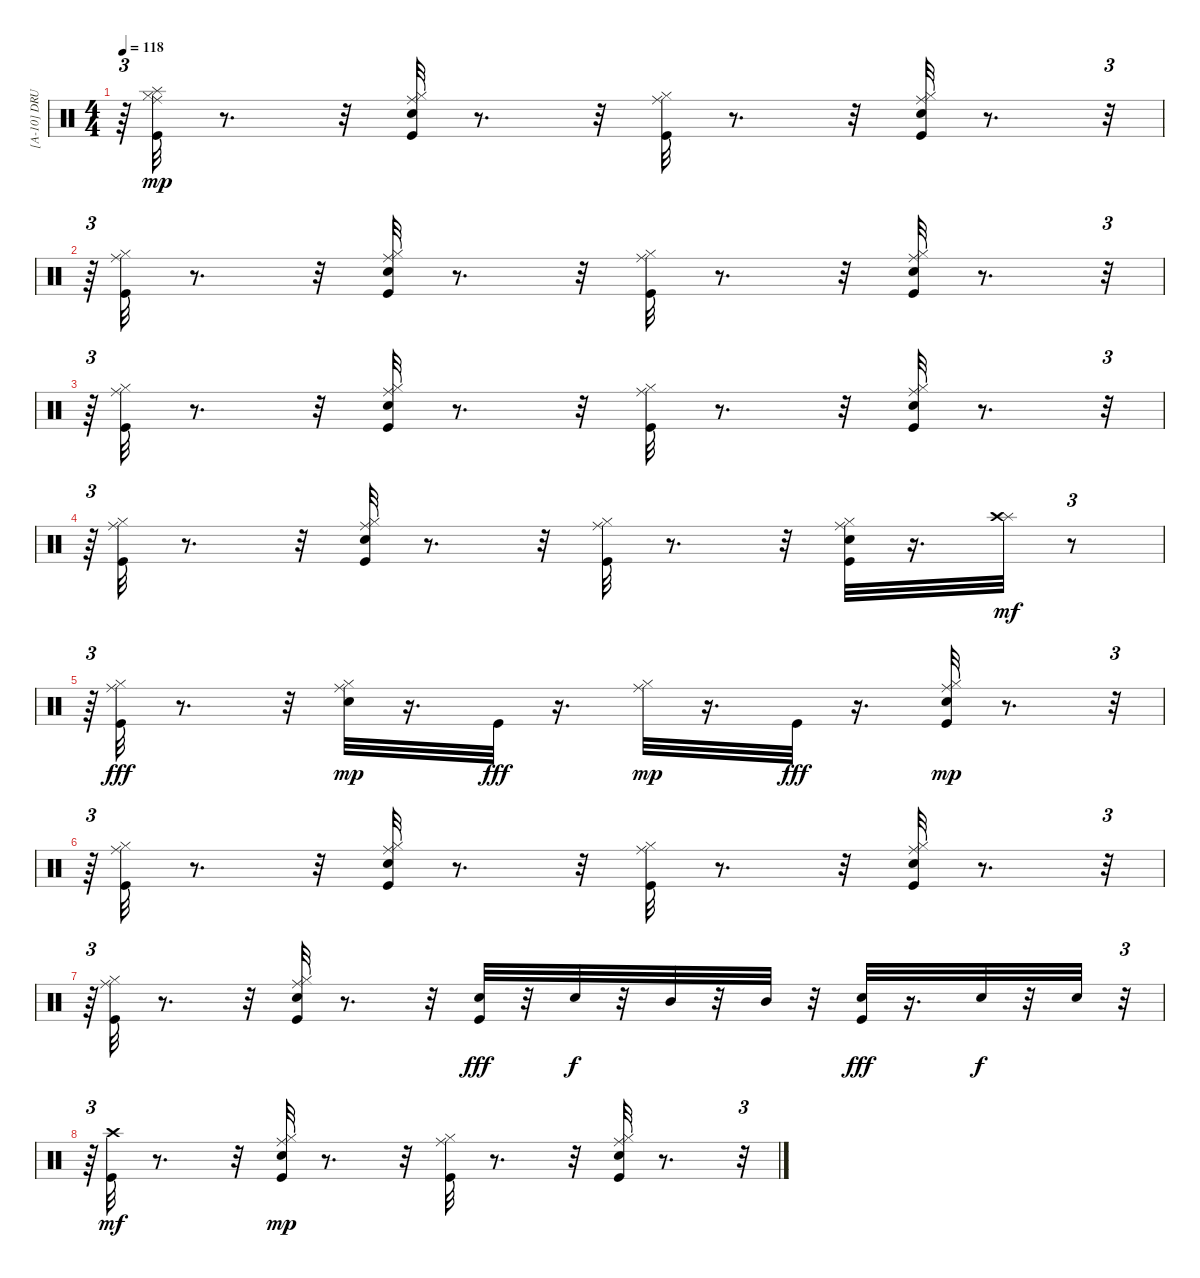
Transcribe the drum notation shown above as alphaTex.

\track ("[A-10] DRUM" "[A-10] DRU") {instrument percussion}
\staff {score}
\articulation defaults
\ts (4 4)
\tempo 118
\clef neutral
\ks c
r.64{tu (3 2) dy mp} ("Kick (hit)" "Splash (hit)" "Ride (middle)" "Hi-Hat (closed)").32 r.8{d} r.32 ("Kick (hit)" "Ride (middle)" "Snare (hit) 2" "Hi-Hat (closed)").32 r.8{d} r.32 ("Kick (hit)" "Ride (middle)" "Hi-Hat (closed)").32 r.8{d} r.32 ("Kick (hit)" "Ride (middle)" "Snare (hit) 2" "Hi-Hat (closed)").32 r.8{d} r.32{tu (3 2)} |
r.64{tu (3 2)} ("Kick (hit)" "Ride (middle)" "Hi-Hat (closed)").32 r.8{d} r.32 ("Kick (hit)" "Ride (middle)" "Snare (hit) 2" "Hi-Hat (closed)").32 r.8{d} r.32 ("Kick (hit)" "Ride (middle)" "Hi-Hat (closed)").32 r.8{d} r.32 ("Kick (hit)" "Ride (middle)" "Snare (hit) 2" "Hi-Hat (closed)").32 r.8{d} r.32{tu (3 2)} |
r.64{tu (3 2)} ("Kick (hit)" "Ride (middle)" "Hi-Hat (closed)").32 r.8{d} r.32 ("Kick (hit)" "Ride (middle)" "Snare (hit) 2" "Hi-Hat (closed)").32 r.8{d} r.32 ("Kick (hit)" "Ride (middle)" "Hi-Hat (closed)").32 r.8{d} r.32 ("Kick (hit)" "Ride (middle)" "Snare (hit) 2" "Hi-Hat (closed)").32 r.8{d} r.32{tu (3 2)} |
r.64{tu (3 2)} ("Kick (hit)" "Ride (middle)" "Hi-Hat (closed)").32 r.8{d} r.32 ("Kick (hit)" "Ride (middle)" "Snare (hit) 2" "Hi-Hat (closed)").32 r.8{d} r.32 ("Kick (hit)" "Ride (middle)" "Hi-Hat (closed)").32 r.8{d} r.32 ("Kick (hit)" "Ride (middle)" "Snare (hit) 2" "Hi-Hat (closed)").32 r.16{d} ("Splash (hit)" "Crash high (hit)").32{dy mf} r.8{tu (3 2)} |
r.64{tu (3 2)} ("Ride (middle)" "Hi-Hat (closed)" "Kick (hit)").32{dy fff} r.8{d} r.32 ("Snare (hit) 2" "Ride (middle)" "Hi-Hat (closed)").32{dy mp} r.16{d} "Kick (hit)".32{dy fff} r.16{d} ("Ride (middle)" "Hi-Hat (closed)").32{dy mp} r.16{d} "Kick (hit)".32{dy fff} r.16{d} ("Kick (hit)" "Ride (middle)" "Snare (hit) 2" "Hi-Hat (closed)").32{dy mp} r.8{d} r.32{tu (3 2)} |
r.64{tu (3 2)} ("Kick (hit)" "Ride (middle)" "Hi-Hat (closed)").32 r.8{d} r.32 ("Kick (hit)" "Ride (middle)" "Snare (hit) 2" "Hi-Hat (closed)").32 r.8{d} r.32 ("Kick (hit)" "Ride (middle)" "Hi-Hat (closed)").32 r.8{d} r.32 ("Kick (hit)" "Ride (middle)" "Snare (hit) 2" "Hi-Hat (closed)").32 r.8{d} r.32{tu (3 2)} |
r.64{tu (3 2)} ("Kick (hit)" "Ride (middle)" "Hi-Hat (closed)").32 r.8{d} r.32 ("Snare (hit) 2" "Ride (middle)" "Kick (hit)" "Hi-Hat (closed)").32 r.8{d} r.32 ("Snare (hit) 2" "Kick (hit)").32{dy fff} r.32 "Snare (hit) 2".32{dy f} r.32 "Mid Tom (hit)".32 r.32 "Mid Tom (hit)".32 r.32 ("Snare (hit) 2" "Kick (hit)").32{dy fff} r.16{d} "Snare (hit) 2".32{dy f} r.32 "Snare (hit) 2".32 r.32{tu (3 2)} |
r.64{tu (3 2)} ("Kick (hit)" "Crash high (hit)").32{dy mf} r.8{d} r.32 ("Kick (hit)" "Ride (middle)" "Snare (hit) 2" "Hi-Hat (closed)").32{dy mp} r.8{d} r.32 ("Kick (hit)" "Ride (middle)" "Hi-Hat (closed)").32 r.8{d} r.32 ("Kick (hit)" "Ride (middle)" "Snare (hit) 2" "Hi-Hat (closed)").32 r.8{d} r.32{tu (3 2)}
